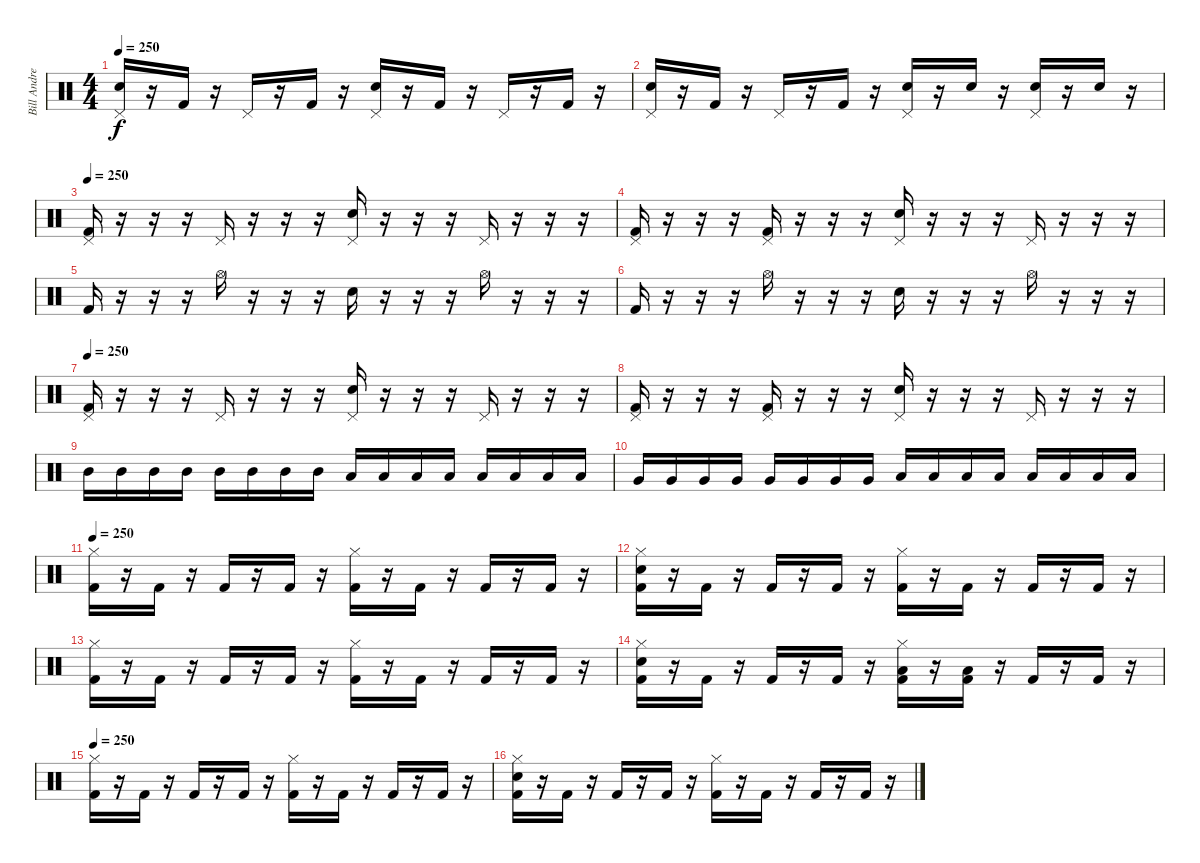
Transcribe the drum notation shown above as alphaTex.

\track ("Bill Andrews" "Bill Andre") {instrument percussion}
\staff {score}
\articulation defaults
\ts (4 4)
\tempo 250
\clef neutral
\ks c
("Pedal Hi-Hat (hit)" "Snare (hit) 2").16{dy f} r.16 "Kick (hit) 2".16 r.16 "Pedal Hi-Hat (hit)".16 r.16 "Kick (hit) 2".16 r.16 ("Pedal Hi-Hat (hit)" "Snare (hit) 2").16 r.16 "Kick (hit) 2".16 r.16 "Pedal Hi-Hat (hit)".16 r.16 "Kick (hit) 2".16 r.16 |
("Pedal Hi-Hat (hit)" "Snare (hit) 2").16 r.16 "Kick (hit) 2".16 r.16 "Pedal Hi-Hat (hit)".16 r.16 "Kick (hit) 2".16 r.16 ("Pedal Hi-Hat (hit)" "Snare (hit) 2").16 r.16 "Snare (hit) 2".16 r.16 ("Pedal Hi-Hat (hit)" "Snare (hit) 2").16 r.16 "Snare (hit) 2".16 r.16 |
\tempo 250
("Pedal Hi-Hat (hit)" "Kick (hit) 2").16 r.16 r.16 r.16 "Pedal Hi-Hat (hit)".16 r.16 r.16 r.16 ("Pedal Hi-Hat (hit)" "Snare (hit) 2").16 r.16 r.16 r.16 "Pedal Hi-Hat (hit)".16 r.16 r.16 r.16 |
("Pedal Hi-Hat (hit)" "Kick (hit) 2").16 r.16 r.16 r.16 ("Pedal Hi-Hat (hit)" "Kick (hit) 2").16 r.16 r.16 r.16 ("Pedal Hi-Hat (hit)" "Snare (hit) 2").16 r.16 r.16 r.16 "Pedal Hi-Hat (hit)".16 r.16 r.16 r.16 |
"Kick (hit) 2".16 r.16 r.16 r.16 "Hi-Hat (open)".16 r.16 r.16 r.16 "Snare (hit) 2".16 r.16 r.16 r.16 "Hi-Hat (open)".16 r.16 r.16 r.16 |
"Kick (hit) 2".16 r.16 r.16 r.16 "Hi-Hat (open)".16 r.16 r.16 r.16 "Snare (hit) 2".16 r.16 r.16 r.16 "Hi-Hat (open)".16 r.16 r.16 r.16 |
\tempo 250
("Pedal Hi-Hat (hit)" "Kick (hit) 2").16 r.16 r.16 r.16 "Pedal Hi-Hat (hit)".16 r.16 r.16 r.16 ("Pedal Hi-Hat (hit)" "Snare (hit) 2").16 r.16 r.16 r.16 "Pedal Hi-Hat (hit)".16 r.16 r.16 r.16 |
("Pedal Hi-Hat (hit)" "Kick (hit) 2").16 r.16 r.16 r.16 ("Pedal Hi-Hat (hit)" "Kick (hit) 2").16 r.16 r.16 r.16 ("Pedal Hi-Hat (hit)" "Snare (hit) 2").16 r.16 r.16 r.16 "Pedal Hi-Hat (hit)".16 r.16 r.16 r.16 |
"Mid Tom (hit)".16 "Mid Tom (hit)".16 "Mid Tom (hit)".16 "Mid Tom (hit)".16 "Mid Tom (hit)".16 "Mid Tom (hit)".16 "Mid Tom (hit)".16 "Mid Tom (hit)".16 "Low Tom (hit)".16 "Low Tom (hit)".16 "Low Tom (hit)".16 "Low Tom (hit)".16 "Low Tom (hit)".16 "Low Tom (hit)".16 "Low Tom (hit)".16 "Low Tom (hit)".16 |
"Very Low Tom (hit)".16 "Very Low Tom (hit)".16 "Very Low Tom (hit)".16 "Very Low Tom (hit)".16 "Very Low Tom (hit)".16 "Very Low Tom (hit)".16 "Very Low Tom (hit)".16 "Very Low Tom (hit)".16 "Low Floor Tom (hit)".16 "Low Floor Tom (hit)".16 "Low Floor Tom (hit)".16 "Low Floor Tom (hit)".16 "Low Floor Tom (hit)".16 "Low Floor Tom (hit)".16 "Low Floor Tom (hit)".16 "Low Floor Tom (hit)".16 |
\tempo 250
("Hi-Hat (closed)" "Kick (hit) 2").16 r.16 "Kick (hit) 2".16 r.16 "Kick (hit) 2".16 r.16 "Kick (hit) 2".16 r.16 ("Hi-Hat (closed)" "Kick (hit) 2").16 r.16 "Kick (hit) 2".16 r.16 "Kick (hit) 2".16 r.16 "Kick (hit) 2".16 r.16 |
("Hi-Hat (closed)" "Snare (hit) 2" "Kick (hit) 2").16 r.16 "Kick (hit) 2".16 r.16 "Kick (hit) 2".16 r.16 "Kick (hit) 2".16 r.16 ("Hi-Hat (closed)" "Kick (hit) 2").16 r.16 "Kick (hit) 2".16 r.16 "Kick (hit) 2".16 r.16 "Kick (hit) 2".16 r.16 |
("Hi-Hat (closed)" "Kick (hit) 2").16 r.16 "Kick (hit) 2".16 r.16 "Kick (hit) 2".16 r.16 "Kick (hit) 2".16 r.16 ("Hi-Hat (closed)" "Kick (hit) 2").16 r.16 "Kick (hit) 2".16 r.16 "Kick (hit) 2".16 r.16 "Kick (hit) 2".16 r.16 |
("Hi-Hat (closed)" "Snare (hit) 2" "Kick (hit) 2").16 r.16 "Kick (hit) 2".16 r.16 "Kick (hit) 2".16 r.16 "Kick (hit) 2".16 r.16 ("Hi-Hat (closed)" "Kick (hit) 2" "Low Floor Tom (hit)").16 r.16 ("Kick (hit) 2" "Low Floor Tom (hit)").16 r.16 "Kick (hit) 2".16 r.16 "Kick (hit) 2".16 r.16 |
\tempo 250
("Hi-Hat (closed)" "Kick (hit) 2").16 r.16 "Kick (hit) 2".16 r.16 "Kick (hit) 2".16 r.16 "Kick (hit) 2".16 r.16 ("Hi-Hat (closed)" "Kick (hit) 2").16 r.16 "Kick (hit) 2".16 r.16 "Kick (hit) 2".16 r.16 "Kick (hit) 2".16 r.16 |
("Hi-Hat (closed)" "Snare (hit) 2" "Kick (hit) 2").16 r.16 "Kick (hit) 2".16 r.16 "Kick (hit) 2".16 r.16 "Kick (hit) 2".16 r.16 ("Hi-Hat (closed)" "Kick (hit) 2").16 r.16 "Kick (hit) 2".16 r.16 "Kick (hit) 2".16 r.16 "Kick (hit) 2".16 r.16
